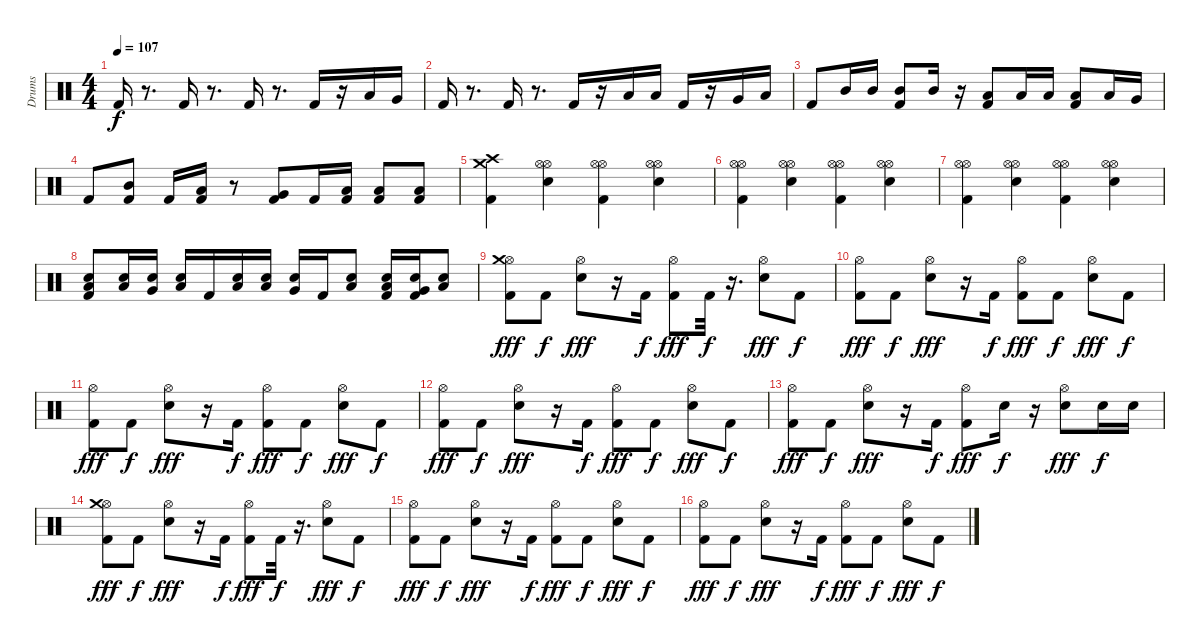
\track ("Drums" "Drums") {instrument percussion}
\staff {score}
\articulation defaults
\ts (4 4)
\tempo 107
\clef neutral
\ks c "Kick (hit) 2".16{dy f}
r.8{d} "Kick (hit) 2".16 r.8{d} "Kick (hit) 2".16 r.8{d} "Kick (hit) 2".16 r.16 "Low Tom (hit)".16 "Very Low Tom (hit)".16 |
"Kick (hit) 2".16 r.8{d} "Kick (hit) 2".16 r.8{d} "Kick (hit) 2".16 r.16 "Low Tom (hit)".16 "Low Tom (hit)".16 "Kick (hit) 2".16 r.16 "Very Low Tom (hit)".16 "Low Floor Tom (hit)".16 |
"Kick (hit) 2".8 "Mid Tom (hit)".16 "Mid Tom (hit)".16 ("Mid Tom (hit)" "Kick (hit) 2").8 "Mid Tom (hit)".16 r.16 ("Low Tom (hit)" "Kick (hit) 2").8 "Low Tom (hit)".16 "Low Tom (hit)".16 ("Low Tom (hit)" "Kick (hit) 2").8 "Low Tom (hit)".16 "Very Low Tom (hit)".16 |
"Kick (hit) 2".8 ("Mid Tom (hit)" "Kick (hit) 2").8 "Kick (hit) 2".16 ("Low Tom (hit)" "Kick (hit) 2").16 r.8 ("Very Low Tom (hit)" "Kick (hit) 2").8 "Kick (hit) 2".16 ("Low Floor Tom (hit)" "Kick (hit) 2").16 ("Low Floor Tom (hit)" "Kick (hit) 2").8 ("Low Floor Tom (hit)" "Kick (hit) 2").8 |
("Crash high (hit)" "Crash medium (hit)" "Kick (hit) 2").4 ("Hi-Hat (open)" "Hi-Hat (open)" "Electric Snare (hit)").4 ("Hi-Hat (open)" "Hi-Hat (open)" "Kick (hit) 2").4 ("Hi-Hat (open)" "Hi-Hat (open)" "Electric Snare (hit)").4 |
("Hi-Hat (open)" "Hi-Hat (open)" "Kick (hit) 2").4 ("Hi-Hat (open)" "Hi-Hat (open)" "Electric Snare (hit)").4 ("Hi-Hat (open)" "Hi-Hat (open)" "Kick (hit) 2").4 ("Hi-Hat (open)" "Hi-Hat (open)" "Electric Snare (hit)").4 |
("Hi-Hat (open)" "Hi-Hat (open)" "Kick (hit) 2").4 ("Hi-Hat (open)" "Hi-Hat (open)" "Electric Snare (hit)").4 ("Hi-Hat (open)" "Hi-Hat (open)" "Kick (hit) 2").4 ("Hi-Hat (open)" "Hi-Hat (open)" "Electric Snare (hit)").4 |
("Electric Snare (hit)" "Low Floor Tom (hit)" "Kick (hit) 2").8 ("Electric Snare (hit)" "Low Floor Tom (hit)").16 ("Electric Snare (hit)" "Very Low Tom (hit)").16 ("Electric Snare (hit)" "Low Tom (hit)").16 "Kick (hit) 2".16 ("Electric Snare (hit)" "Low Floor Tom (hit)").16 ("Electric Snare (hit)" "Low Tom (hit)").16 ("Electric Snare (hit)" "Very Low Tom (hit)").16 "Kick (hit) 2".16 ("Electric Snare (hit)" "Low Floor Tom (hit)").8 ("Electric Snare (hit)" "Low Floor Tom (hit)" "Kick (hit) 2").16 ("Electric Snare (hit)" "Very Low Tom (hit)" "Kick (hit) 2").16 ("Electric Snare (hit)" "Low Tom (hit)").8 |
("Hi-Hat (open)" "Kick (hit) 2" "Crash medium (hit)").8{dy fff} "Kick (hit) 2".8{dy f} ("Snare (hit) 2" "Hi-Hat (open)").8{dy fff} r.16 "Kick (hit) 2".16{dy f} ("Kick (hit) 2" "Hi-Hat (open)").8{dy fff} "Kick (hit) 2".32{dy f} r.16{d} ("Snare (hit) 2" "Hi-Hat (open)").8{dy fff} "Kick (hit) 2".8{dy f} |
("Kick (hit) 2" "Hi-Hat (open)").8{dy fff} "Kick (hit) 2".8{dy f} ("Snare (hit) 2" "Hi-Hat (open)").8{dy fff} r.16 "Kick (hit) 2".16{dy f} ("Kick (hit) 2" "Hi-Hat (open)").8{dy fff} "Kick (hit) 2".8{dy f} ("Snare (hit) 2" "Hi-Hat (open)").8{dy fff} "Kick (hit) 2".8{dy f} |
("Kick (hit) 2" "Hi-Hat (open)").8{dy fff} "Kick (hit) 2".8{dy f} ("Hi-Hat (open)" "Snare (hit) 2").8{dy fff} r.16 "Kick (hit) 2".16{dy f} ("Kick (hit) 2" "Hi-Hat (open)").8{dy fff} "Kick (hit) 2".8{dy f} ("Snare (hit) 2" "Hi-Hat (open)").8{dy fff} "Kick (hit) 2".8{dy f} |
("Kick (hit) 2" "Hi-Hat (open)").8{dy fff} "Kick (hit) 2".8{dy f} ("Hi-Hat (open)" "Snare (hit) 2").8{dy fff} r.16 "Kick (hit) 2".16{dy f} ("Kick (hit) 2" "Hi-Hat (open)").8{dy fff} "Kick (hit) 2".8{dy f} ("Snare (hit) 2" "Hi-Hat (open)").8{dy fff} "Kick (hit) 2".8{dy f} |
("Kick (hit) 2" "Hi-Hat (open)").8{dy fff} "Kick (hit) 2".8{dy f} ("Hi-Hat (open)" "Snare (hit) 2").8{dy fff} r.16 "Kick (hit) 2".16{dy f} ("Kick (hit) 2" "Hi-Hat (open)").8{dy fff} "Snare (hit) 2".16{dy f} r.16 ("Snare (hit) 2" "Hi-Hat (open)").8{dy fff} "Snare (hit) 2".16{dy f} "Snare (hit) 2".16 |
("Hi-Hat (open)" "Kick (hit) 2" "Crash medium (hit)").8{dy fff} "Kick (hit) 2".8{dy f} ("Snare (hit) 2" "Hi-Hat (open)").8{dy fff} r.16 "Kick (hit) 2".16{dy f} ("Kick (hit) 2" "Hi-Hat (open)").8{dy fff} "Kick (hit) 2".32{dy f} r.16{d} ("Snare (hit) 2" "Hi-Hat (open)").8{dy fff} "Kick (hit) 2".8{dy f} |
("Kick (hit) 2" "Hi-Hat (open)").8{dy fff} "Kick (hit) 2".8{dy f} ("Snare (hit) 2" "Hi-Hat (open)").8{dy fff} r.16 "Kick (hit) 2".16{dy f} ("Kick (hit) 2" "Hi-Hat (open)").8{dy fff} "Kick (hit) 2".8{dy f} ("Snare (hit) 2" "Hi-Hat (open)").8{dy fff} "Kick (hit) 2".8{dy f} |
("Kick (hit) 2" "Hi-Hat (open)").8{dy fff} "Kick (hit) 2".8{dy f} ("Hi-Hat (open)" "Snare (hit) 2").8{dy fff} r.16 "Kick (hit) 2".16{dy f} ("Kick (hit) 2" "Hi-Hat (open)").8{dy fff} "Kick (hit) 2".8{dy f} ("Snare (hit) 2" "Hi-Hat (open)").8{dy fff} "Kick (hit) 2".8{dy f}
